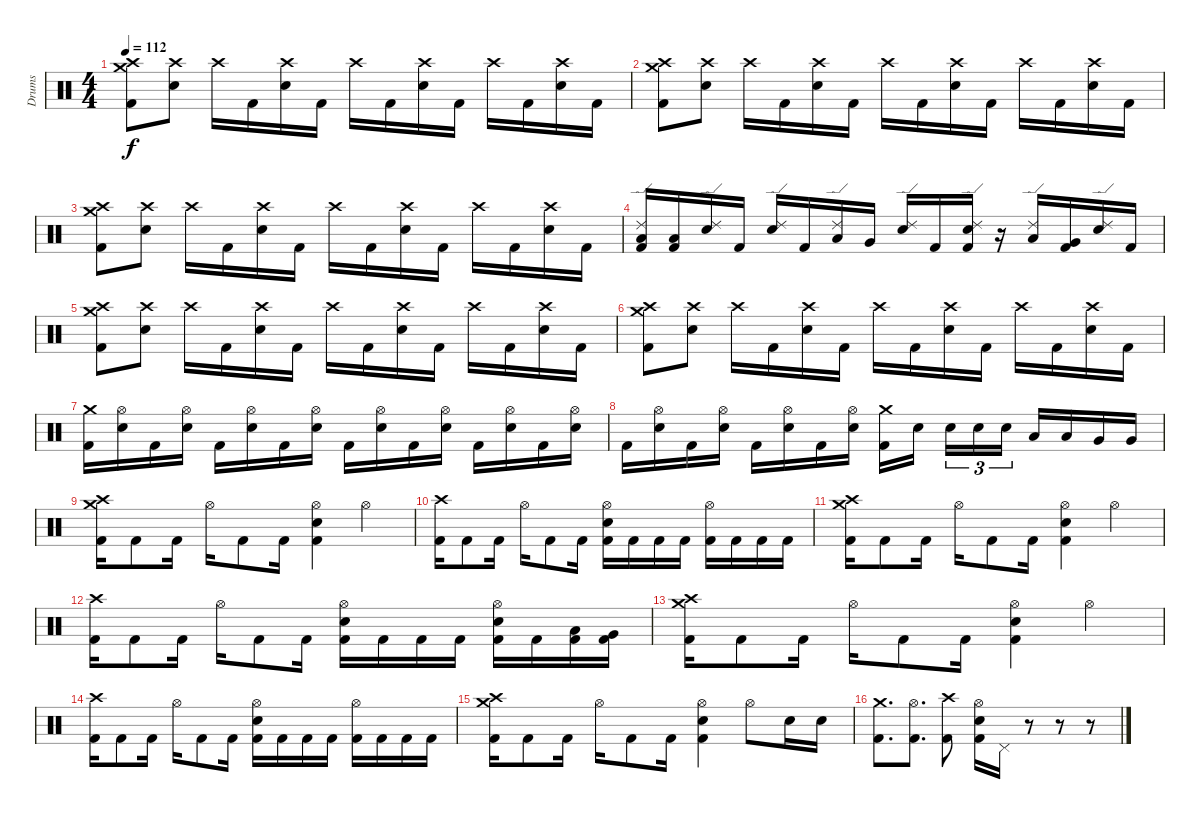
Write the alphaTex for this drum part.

\track ("Drums " "Drums ") {instrument percussion}
\staff {score}
\articulation defaults
\ts (4 4)
\tempo 112
\clef neutral
\ks c
("Crash high (hit)" "Crash medium (hit)" "Kick (hit) 2").8{dy f} ("Crash high (hit)" "Electric Snare (hit)").8 "Crash high (hit)".16 "Kick (hit) 2".16 ("Crash high (hit)" "Electric Snare (hit)").16 "Kick (hit) 2".16 "Crash high (hit)".16 "Kick (hit) 2".16 ("Crash high (hit)" "Electric Snare (hit)").16 "Kick (hit) 2".16 "Crash high (hit)".16 "Kick (hit) 2".16 ("Crash high (hit)" "Electric Snare (hit)").16 "Kick (hit) 2".16 |
("Crash high (hit)" "Crash medium (hit)" "Kick (hit) 2").8 ("Crash high (hit)" "Electric Snare (hit)").8 "Crash high (hit)".16 "Kick (hit) 2".16 ("Crash high (hit)" "Electric Snare (hit)").16 "Kick (hit) 2".16 "Crash high (hit)".16 "Kick (hit) 2".16 ("Crash high (hit)" "Electric Snare (hit)").16 "Kick (hit) 2".16 "Crash high (hit)".16 "Kick (hit) 2".16 ("Crash high (hit)" "Electric Snare (hit)").16 "Kick (hit) 2".16 |
("Crash high (hit)" "Crash medium (hit)" "Kick (hit) 2").8 ("Crash high (hit)" "Electric Snare (hit)").8 "Crash high (hit)".16 "Kick (hit) 2".16 ("Crash high (hit)" "Electric Snare (hit)").16 "Kick (hit) 2".16 "Crash high (hit)".16 "Kick (hit) 2".16 ("Crash high (hit)" "Electric Snare (hit)").16 "Kick (hit) 2".16 "Crash high (hit)".16 "Kick (hit) 2".16 ("Crash high (hit)" "Electric Snare (hit)").16 "Kick (hit) 2".16 |
("Ride (edge) 2" "Low Tom (hit)" "Kick (hit) 2").16 ("Low Tom (hit)" "Kick (hit) 2").16 ("Ride (edge) 2" "Electric Snare (hit)").16 "Kick (hit) 2".16 ("Ride (edge) 2" "Electric Snare (hit)").16 "Kick (hit) 2".16 ("Ride (edge) 2" "Low Tom (hit)").16 "Very Low Tom (hit)".16 ("Ride (edge) 2" "Electric Snare (hit)").16 "Kick (hit) 2".16 ("Ride (edge) 2" "Electric Snare (hit)" "Kick (hit) 2").16 r.16 ("Ride (edge) 2" "Low Tom (hit)").16 ("Very Low Tom (hit)" "Kick (hit) 2").16 ("Ride (edge) 2" "Electric Snare (hit)").16 "Kick (hit) 2".16 |
("Crash high (hit)" "Crash medium (hit)" "Kick (hit) 2").8 ("Crash high (hit)" "Electric Snare (hit)").8 "Crash high (hit)".16 "Kick (hit) 2".16 ("Crash high (hit)" "Electric Snare (hit)").16 "Kick (hit) 2".16 "Crash high (hit)".16 "Kick (hit) 2".16 ("Crash high (hit)" "Electric Snare (hit)").16 "Kick (hit) 2".16 "Crash high (hit)".16 "Kick (hit) 2".16 ("Crash high (hit)" "Electric Snare (hit)").16 "Kick (hit) 2".16 |
("Crash high (hit)" "Crash medium (hit)" "Kick (hit) 2").8 ("Crash high (hit)" "Electric Snare (hit)").8 "Crash high (hit)".16 "Kick (hit) 2".16 ("Crash high (hit)" "Electric Snare (hit)").16 "Kick (hit) 2".16 "Crash high (hit)".16 "Kick (hit) 2".16 ("Crash high (hit)" "Electric Snare (hit)").16 "Kick (hit) 2".16 "Crash high (hit)".16 "Kick (hit) 2".16 ("Crash high (hit)" "Electric Snare (hit)").16 "Kick (hit) 2".16 |
("Crash medium (hit)" "Kick (hit) 2").16 ("Hi-Hat (open)" "Electric Snare (hit)").16 "Kick (hit) 2".16 ("Hi-Hat (open)" "Electric Snare (hit)").16 "Kick (hit) 2".16 ("Hi-Hat (open)" "Electric Snare (hit)").16 "Kick (hit) 2".16 ("Hi-Hat (open)" "Electric Snare (hit)").16 "Kick (hit) 2".16 ("Hi-Hat (open)" "Electric Snare (hit)").16 "Kick (hit) 2".16 ("Hi-Hat (open)" "Electric Snare (hit)").16 "Kick (hit) 2".16 ("Hi-Hat (open)" "Electric Snare (hit)").16 "Kick (hit) 2".16 ("Hi-Hat (open)" "Electric Snare (hit)").16 |
"Kick (hit) 2".16 ("Hi-Hat (open)" "Electric Snare (hit)").16 "Kick (hit) 2".16 ("Hi-Hat (open)" "Electric Snare (hit)").16 "Kick (hit) 2".16 ("Hi-Hat (open)" "Electric Snare (hit)").16 "Kick (hit) 2".16 ("Hi-Hat (open)" "Electric Snare (hit)").16 ("Crash medium (hit)" "Kick (hit) 2").16 "Electric Snare (hit)".16{beam splitsecondary} "Electric Snare (hit)".16{tu (3 2)} "Electric Snare (hit)".16{tu (3 2)} "Electric Snare (hit)".16{tu (3 2)} "Low Tom (hit)".16 "Low Tom (hit)".16 "Very Low Tom (hit)".16 "Very Low Tom (hit)".16 |
("Crash high (hit)" "Crash medium (hit)" "Kick (hit) 2").16 "Kick (hit) 2".8 "Kick (hit) 2".16 "Hi-Hat (open)".16 "Kick (hit) 2".8 "Kick (hit) 2".16 ("Hi-Hat (open)" "Electric Snare (hit)" "Kick (hit) 2").4 "Hi-Hat (open)".4 |
("Crash high (hit)" "Kick (hit) 2").16 "Kick (hit) 2".8 "Kick (hit) 2".16 "Hi-Hat (open)".16 "Kick (hit) 2".8 "Kick (hit) 2".16 ("Hi-Hat (open)" "Electric Snare (hit)" "Kick (hit) 2").16 "Kick (hit) 2".16 "Kick (hit) 2".16 "Kick (hit) 2".16 ("Hi-Hat (open)" "Kick (hit) 2").16 "Kick (hit) 2".16 "Kick (hit) 2".16 "Kick (hit) 2".16 |
("Crash high (hit)" "Crash medium (hit)" "Kick (hit) 2").16 "Kick (hit) 2".8 "Kick (hit) 2".16 "Hi-Hat (open)".16 "Kick (hit) 2".8 "Kick (hit) 2".16 ("Hi-Hat (open)" "Electric Snare (hit)" "Kick (hit) 2").4 "Hi-Hat (open)".4 |
("Crash high (hit)" "Kick (hit) 2").16 "Kick (hit) 2".8 "Kick (hit) 2".16 "Hi-Hat (open)".16 "Kick (hit) 2".8 "Kick (hit) 2".16 ("Hi-Hat (open)" "Electric Snare (hit)" "Kick (hit) 2").16 "Kick (hit) 2".16 "Kick (hit) 2".16 "Kick (hit) 2".16 ("Hi-Hat (open)" "Electric Snare (hit)" "Kick (hit) 2").16 "Kick (hit) 2".16 ("Low Tom (hit)" "Kick (hit) 2").16 ("Very Low Tom (hit)" "Kick (hit) 2").16 |
("Crash high (hit)" "Crash medium (hit)" "Kick (hit) 2").16 "Kick (hit) 2".8 "Kick (hit) 2".16 "Hi-Hat (open)".16 "Kick (hit) 2".8 "Kick (hit) 2".16 ("Hi-Hat (open)" "Electric Snare (hit)" "Kick (hit) 2").4 "Hi-Hat (open)".4 |
("Crash high (hit)" "Kick (hit) 2").16 "Kick (hit) 2".8 "Kick (hit) 2".16 "Hi-Hat (open)".16 "Kick (hit) 2".8 "Kick (hit) 2".16 ("Hi-Hat (open)" "Electric Snare (hit)" "Kick (hit) 2").16 "Kick (hit) 2".16 "Kick (hit) 2".16 "Kick (hit) 2".16 ("Hi-Hat (open)" "Kick (hit) 2").16 "Kick (hit) 2".16 "Kick (hit) 2".16 "Kick (hit) 2".16 |
("Crash high (hit)" "Crash medium (hit)" "Kick (hit) 2").16 "Kick (hit) 2".8 "Kick (hit) 2".16 "Hi-Hat (open)".16 "Kick (hit) 2".8 "Kick (hit) 2".16 ("Hi-Hat (open)" "Electric Snare (hit)" "Kick (hit) 2").4 "Hi-Hat (open)".8 "Electric Snare (hit)".16 "Electric Snare (hit)".16 |
("Crash medium (hit)" "Kick (hit) 2").8{d} ("Hi-Hat (open)" "Kick (hit) 2").8{d} ("Crash high (hit)" "Kick (hit) 2").8 ("Hi-Hat (open)" "Electric Snare (hit)" "Kick (hit) 2").16 "Pedal Hi-Hat (hit)".16 r.8 r.8 r.8
